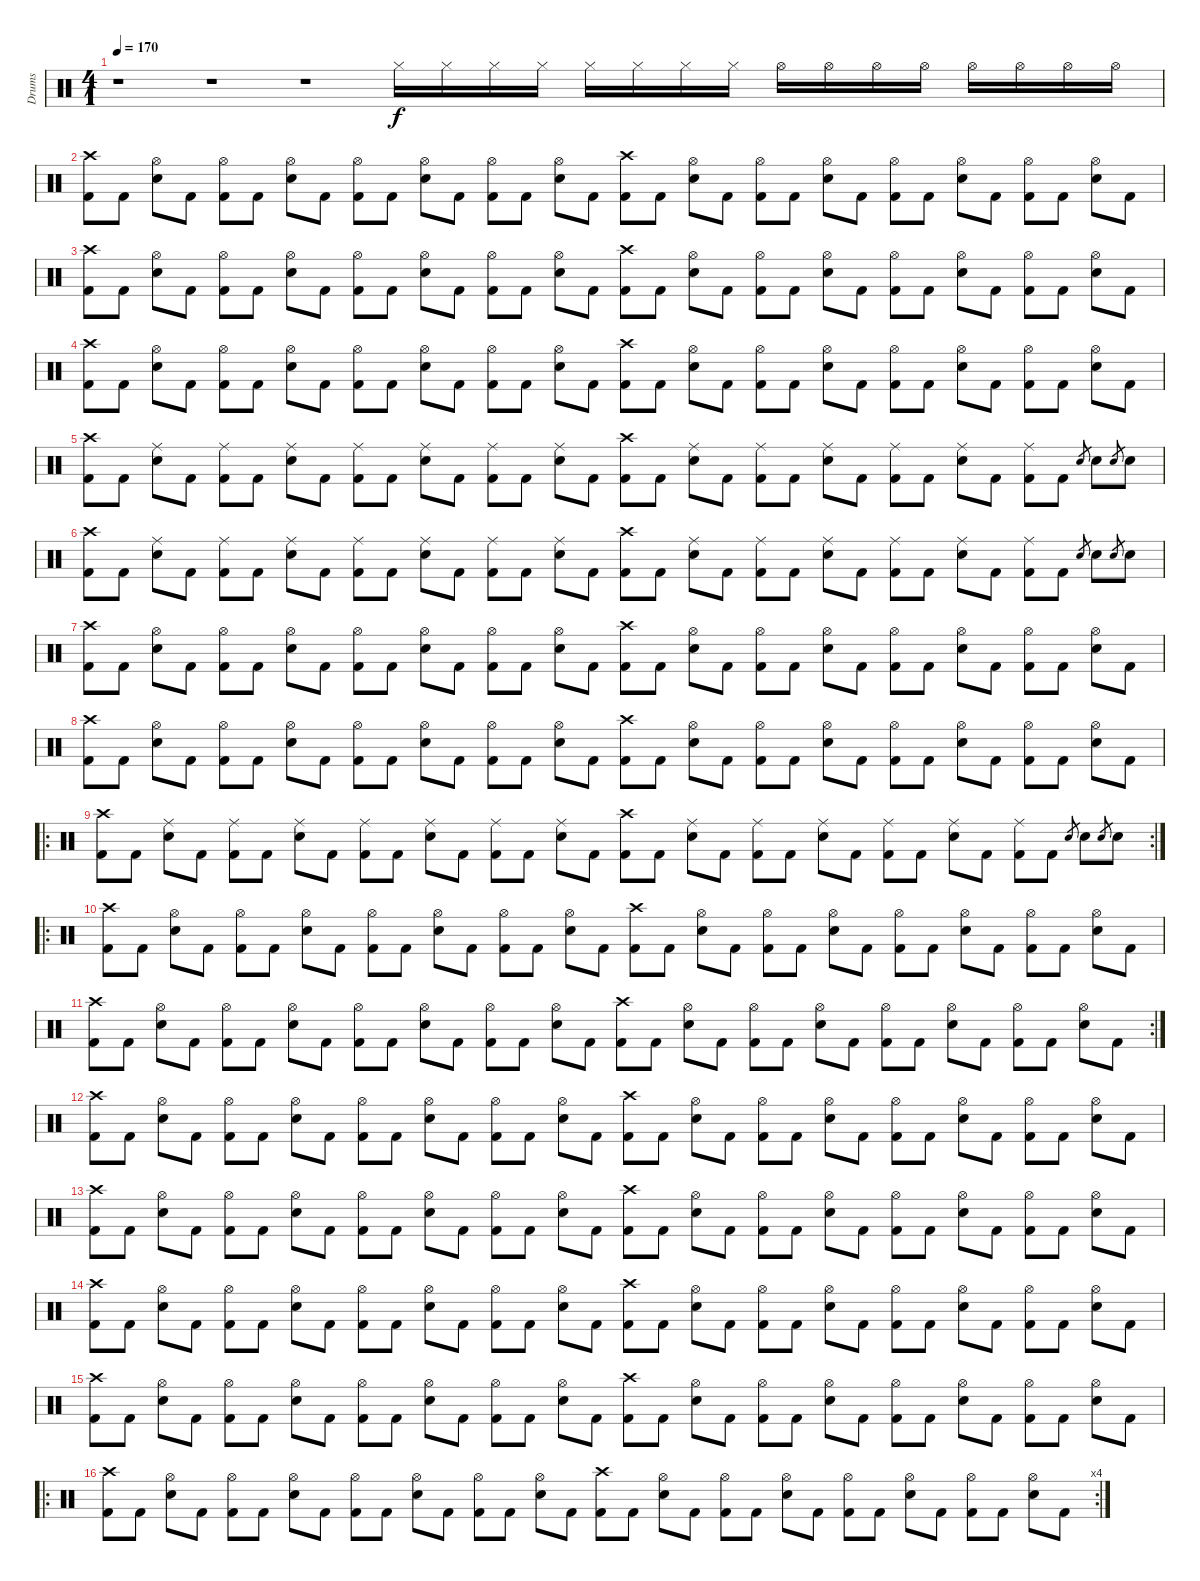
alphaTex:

\track ("Drums" "Drums") {instrument percussion}
\staff {score}
\articulation defaults
\ts (4 1)
\tempo 170
\clef neutral
\ks c
r.1{dy f} r.1 r.1 "Hi-Hat (closed)".16 "Hi-Hat (closed)".16 "Hi-Hat (closed)".16 "Hi-Hat (closed)".16 "Hi-Hat (closed)".16 "Hi-Hat (closed)".16 "Hi-Hat (closed)".16 "Hi-Hat (closed)".16 "Hi-Hat (open)".16 "Hi-Hat (open)".16 "Hi-Hat (open)".16 "Hi-Hat (open)".16 "Hi-Hat (open)".16 "Hi-Hat (open)".16 "Hi-Hat (open)".16 "Hi-Hat (open)".16 |
("Crash high (hit)" "Kick (hit) 2").8 "Kick (hit) 2".8 ("Hi-Hat (open)" "Electric Snare (hit)").8 "Kick (hit) 2".8 ("Hi-Hat (open)" "Kick (hit) 2").8 "Kick (hit) 2".8 ("Hi-Hat (open)" "Electric Snare (hit)").8 "Kick (hit) 2".8 ("Hi-Hat (open)" "Kick (hit) 2").8 "Kick (hit) 2".8 ("Hi-Hat (open)" "Electric Snare (hit)").8 "Kick (hit) 2".8 ("Hi-Hat (open)" "Kick (hit) 2").8 "Kick (hit) 2".8 ("Hi-Hat (open)" "Electric Snare (hit)").8 "Kick (hit) 2".8 ("Crash high (hit)" "Kick (hit) 2").8 "Kick (hit) 2".8 ("Hi-Hat (open)" "Electric Snare (hit)").8 "Kick (hit) 2".8 ("Hi-Hat (open)" "Kick (hit) 2").8 "Kick (hit) 2".8 ("Hi-Hat (open)" "Electric Snare (hit)").8 "Kick (hit) 2".8 ("Hi-Hat (open)" "Kick (hit) 2").8 "Kick (hit) 2".8 ("Hi-Hat (open)" "Electric Snare (hit)").8 "Kick (hit) 2".8 ("Hi-Hat (open)" "Kick (hit) 2").8 "Kick (hit) 2".8 ("Hi-Hat (open)" "Electric Snare (hit)").8 "Kick (hit) 2".8 |
("Crash high (hit)" "Kick (hit) 2").8 "Kick (hit) 2".8 ("Hi-Hat (open)" "Electric Snare (hit)").8 "Kick (hit) 2".8 ("Hi-Hat (open)" "Kick (hit) 2").8 "Kick (hit) 2".8 ("Hi-Hat (open)" "Electric Snare (hit)").8 "Kick (hit) 2".8 ("Hi-Hat (open)" "Kick (hit) 2").8 "Kick (hit) 2".8 ("Hi-Hat (open)" "Electric Snare (hit)").8 "Kick (hit) 2".8 ("Hi-Hat (open)" "Kick (hit) 2").8 "Kick (hit) 2".8 ("Hi-Hat (open)" "Electric Snare (hit)").8 "Kick (hit) 2".8 ("Crash high (hit)" "Kick (hit) 2").8 "Kick (hit) 2".8 ("Hi-Hat (open)" "Electric Snare (hit)").8 "Kick (hit) 2".8 ("Hi-Hat (open)" "Kick (hit) 2").8 "Kick (hit) 2".8 ("Hi-Hat (open)" "Electric Snare (hit)").8 "Kick (hit) 2".8 ("Hi-Hat (open)" "Kick (hit) 2").8 "Kick (hit) 2".8 ("Hi-Hat (open)" "Electric Snare (hit)").8 "Kick (hit) 2".8 ("Hi-Hat (open)" "Kick (hit) 2").8 "Kick (hit) 2".8 ("Hi-Hat (open)" "Electric Snare (hit)").8 "Kick (hit) 2".8 |
("Crash high (hit)" "Kick (hit) 2").8 "Kick (hit) 2".8 ("Hi-Hat (open)" "Electric Snare (hit)").8 "Kick (hit) 2".8 ("Hi-Hat (open)" "Kick (hit) 2").8 "Kick (hit) 2".8 ("Hi-Hat (open)" "Electric Snare (hit)").8 "Kick (hit) 2".8 ("Hi-Hat (open)" "Kick (hit) 2").8 "Kick (hit) 2".8 ("Hi-Hat (open)" "Electric Snare (hit)").8 "Kick (hit) 2".8 ("Hi-Hat (open)" "Kick (hit) 2").8 "Kick (hit) 2".8 ("Hi-Hat (open)" "Electric Snare (hit)").8 "Kick (hit) 2".8 ("Crash high (hit)" "Kick (hit) 2").8 "Kick (hit) 2".8 ("Hi-Hat (open)" "Electric Snare (hit)").8 "Kick (hit) 2".8 ("Hi-Hat (open)" "Kick (hit) 2").8 "Kick (hit) 2".8 ("Hi-Hat (open)" "Electric Snare (hit)").8 "Kick (hit) 2".8 ("Hi-Hat (open)" "Kick (hit) 2").8 "Kick (hit) 2".8 ("Hi-Hat (open)" "Electric Snare (hit)").8 "Kick (hit) 2".8 ("Hi-Hat (open)" "Kick (hit) 2").8 "Kick (hit) 2".8 ("Hi-Hat (open)" "Electric Snare (hit)").8 "Kick (hit) 2".8 |
("Crash high (hit)" "Kick (hit) 2").8 "Kick (hit) 2".8 ("Ride (middle)" "Electric Snare (hit)").8 "Kick (hit) 2".8 ("Ride (middle)" "Kick (hit) 2").8 "Kick (hit) 2".8 ("Ride (middle)" "Electric Snare (hit)").8 "Kick (hit) 2".8 ("Ride (middle)" "Kick (hit) 2").8 "Kick (hit) 2".8 ("Ride (middle)" "Electric Snare (hit)").8 "Kick (hit) 2".8 ("Ride (middle)" "Kick (hit) 2").8 "Kick (hit) 2".8 ("Ride (middle)" "Electric Snare (hit)").8 "Kick (hit) 2".8 ("Crash high (hit)" "Kick (hit) 2").8 "Kick (hit) 2".8 ("Ride (middle)" "Electric Snare (hit)").8 "Kick (hit) 2".8 ("Ride (middle)" "Kick (hit) 2").8 "Kick (hit) 2".8 ("Ride (middle)" "Electric Snare (hit)").8 "Kick (hit) 2".8 ("Ride (middle)" "Kick (hit) 2").8 "Kick (hit) 2".8 ("Ride (middle)" "Electric Snare (hit)").8 "Kick (hit) 2".8 ("Ride (middle)" "Kick (hit) 2").8 "Kick (hit) 2".8 "Electric Snare (hit)".8{gr} "Electric Snare (hit)".8 "Electric Snare (hit)".8{gr} "Electric Snare (hit)".8 |
("Crash high (hit)" "Kick (hit) 2").8 "Kick (hit) 2".8 ("Ride (middle)" "Electric Snare (hit)").8 "Kick (hit) 2".8 ("Ride (middle)" "Kick (hit) 2").8 "Kick (hit) 2".8 ("Ride (middle)" "Electric Snare (hit)").8 "Kick (hit) 2".8 ("Ride (middle)" "Kick (hit) 2").8 "Kick (hit) 2".8 ("Ride (middle)" "Electric Snare (hit)").8 "Kick (hit) 2".8 ("Ride (middle)" "Kick (hit) 2").8 "Kick (hit) 2".8 ("Ride (middle)" "Electric Snare (hit)").8 "Kick (hit) 2".8 ("Crash high (hit)" "Kick (hit) 2").8 "Kick (hit) 2".8 ("Ride (middle)" "Electric Snare (hit)").8 "Kick (hit) 2".8 ("Ride (middle)" "Kick (hit) 2").8 "Kick (hit) 2".8 ("Ride (middle)" "Electric Snare (hit)").8 "Kick (hit) 2".8 ("Ride (middle)" "Kick (hit) 2").8 "Kick (hit) 2".8 ("Ride (middle)" "Electric Snare (hit)").8 "Kick (hit) 2".8 ("Ride (middle)" "Kick (hit) 2").8 "Kick (hit) 2".8 "Electric Snare (hit)".8{gr} "Electric Snare (hit)".8 "Electric Snare (hit)".8{gr} "Electric Snare (hit)".8 |
("Crash high (hit)" "Kick (hit) 2").8 "Kick (hit) 2".8 ("Hi-Hat (open)" "Electric Snare (hit)").8 "Kick (hit) 2".8 ("Hi-Hat (open)" "Kick (hit) 2").8 "Kick (hit) 2".8 ("Hi-Hat (open)" "Electric Snare (hit)").8 "Kick (hit) 2".8 ("Hi-Hat (open)" "Kick (hit) 2").8 "Kick (hit) 2".8 ("Hi-Hat (open)" "Electric Snare (hit)").8 "Kick (hit) 2".8 ("Hi-Hat (open)" "Kick (hit) 2").8 "Kick (hit) 2".8 ("Hi-Hat (open)" "Electric Snare (hit)").8 "Kick (hit) 2".8 ("Crash high (hit)" "Kick (hit) 2").8 "Kick (hit) 2".8 ("Hi-Hat (open)" "Electric Snare (hit)").8 "Kick (hit) 2".8 ("Hi-Hat (open)" "Kick (hit) 2").8 "Kick (hit) 2".8 ("Hi-Hat (open)" "Electric Snare (hit)").8 "Kick (hit) 2".8 ("Hi-Hat (open)" "Kick (hit) 2").8 "Kick (hit) 2".8 ("Hi-Hat (open)" "Electric Snare (hit)").8 "Kick (hit) 2".8 ("Hi-Hat (open)" "Kick (hit) 2").8 "Kick (hit) 2".8 ("Hi-Hat (open)" "Electric Snare (hit)").8 "Kick (hit) 2".8 |
("Crash high (hit)" "Kick (hit) 2").8 "Kick (hit) 2".8 ("Hi-Hat (open)" "Electric Snare (hit)").8 "Kick (hit) 2".8 ("Hi-Hat (open)" "Kick (hit) 2").8 "Kick (hit) 2".8 ("Hi-Hat (open)" "Electric Snare (hit)").8 "Kick (hit) 2".8 ("Hi-Hat (open)" "Kick (hit) 2").8 "Kick (hit) 2".8 ("Hi-Hat (open)" "Electric Snare (hit)").8 "Kick (hit) 2".8 ("Hi-Hat (open)" "Kick (hit) 2").8 "Kick (hit) 2".8 ("Hi-Hat (open)" "Electric Snare (hit)").8 "Kick (hit) 2".8 ("Crash high (hit)" "Kick (hit) 2").8 "Kick (hit) 2".8 ("Hi-Hat (open)" "Electric Snare (hit)").8 "Kick (hit) 2".8 ("Hi-Hat (open)" "Kick (hit) 2").8 "Kick (hit) 2".8 ("Hi-Hat (open)" "Electric Snare (hit)").8 "Kick (hit) 2".8 ("Hi-Hat (open)" "Kick (hit) 2").8 "Kick (hit) 2".8 ("Hi-Hat (open)" "Electric Snare (hit)").8 "Kick (hit) 2".8 ("Hi-Hat (open)" "Kick (hit) 2").8 "Kick (hit) 2".8 ("Hi-Hat (open)" "Electric Snare (hit)").8 "Kick (hit) 2".8 |
\ro
\rc 2
("Crash high (hit)" "Kick (hit) 2").8 "Kick (hit) 2".8 ("Ride (middle)" "Electric Snare (hit)").8 "Kick (hit) 2".8 ("Ride (middle)" "Kick (hit) 2").8 "Kick (hit) 2".8 ("Ride (middle)" "Electric Snare (hit)").8 "Kick (hit) 2".8 ("Ride (middle)" "Kick (hit) 2").8 "Kick (hit) 2".8 ("Ride (middle)" "Electric Snare (hit)").8 "Kick (hit) 2".8 ("Ride (middle)" "Kick (hit) 2").8 "Kick (hit) 2".8 ("Ride (middle)" "Electric Snare (hit)").8 "Kick (hit) 2".8 ("Crash high (hit)" "Kick (hit) 2").8 "Kick (hit) 2".8 ("Ride (middle)" "Electric Snare (hit)").8 "Kick (hit) 2".8 ("Ride (middle)" "Kick (hit) 2").8 "Kick (hit) 2".8 ("Ride (middle)" "Electric Snare (hit)").8 "Kick (hit) 2".8 ("Ride (middle)" "Kick (hit) 2").8 "Kick (hit) 2".8 ("Ride (middle)" "Electric Snare (hit)").8 "Kick (hit) 2".8 ("Ride (middle)" "Kick (hit) 2").8 "Kick (hit) 2".8 "Electric Snare (hit)".8{gr} "Electric Snare (hit)".8 "Electric Snare (hit)".8{gr} "Electric Snare (hit)".8 |
\ro
("Crash high (hit)" "Kick (hit) 2").8 "Kick (hit) 2".8 ("Hi-Hat (open)" "Electric Snare (hit)").8 "Kick (hit) 2".8 ("Hi-Hat (open)" "Kick (hit) 2").8 "Kick (hit) 2".8 ("Hi-Hat (open)" "Electric Snare (hit)").8 "Kick (hit) 2".8 ("Hi-Hat (open)" "Kick (hit) 2").8 "Kick (hit) 2".8 ("Hi-Hat (open)" "Electric Snare (hit)").8 "Kick (hit) 2".8 ("Hi-Hat (open)" "Kick (hit) 2").8 "Kick (hit) 2".8 ("Hi-Hat (open)" "Electric Snare (hit)").8 "Kick (hit) 2".8 ("Crash high (hit)" "Kick (hit) 2").8 "Kick (hit) 2".8 ("Hi-Hat (open)" "Electric Snare (hit)").8 "Kick (hit) 2".8 ("Hi-Hat (open)" "Kick (hit) 2").8 "Kick (hit) 2".8 ("Hi-Hat (open)" "Electric Snare (hit)").8 "Kick (hit) 2".8 ("Hi-Hat (open)" "Kick (hit) 2").8 "Kick (hit) 2".8 ("Hi-Hat (open)" "Electric Snare (hit)").8 "Kick (hit) 2".8 ("Hi-Hat (open)" "Kick (hit) 2").8 "Kick (hit) 2".8 ("Hi-Hat (open)" "Electric Snare (hit)").8 "Kick (hit) 2".8 |
\rc 2
("Crash high (hit)" "Kick (hit) 2").8 "Kick (hit) 2".8 ("Hi-Hat (open)" "Electric Snare (hit)").8 "Kick (hit) 2".8 ("Hi-Hat (open)" "Kick (hit) 2").8 "Kick (hit) 2".8 ("Hi-Hat (open)" "Electric Snare (hit)").8 "Kick (hit) 2".8 ("Hi-Hat (open)" "Kick (hit) 2").8 "Kick (hit) 2".8 ("Hi-Hat (open)" "Electric Snare (hit)").8 "Kick (hit) 2".8 ("Hi-Hat (open)" "Kick (hit) 2").8 "Kick (hit) 2".8 ("Hi-Hat (open)" "Electric Snare (hit)").8 "Kick (hit) 2".8 ("Crash high (hit)" "Kick (hit) 2").8 "Kick (hit) 2".8 ("Hi-Hat (open)" "Electric Snare (hit)").8 "Kick (hit) 2".8 ("Hi-Hat (open)" "Kick (hit) 2").8 "Kick (hit) 2".8 ("Hi-Hat (open)" "Electric Snare (hit)").8 "Kick (hit) 2".8 ("Hi-Hat (open)" "Kick (hit) 2").8 "Kick (hit) 2".8 ("Hi-Hat (open)" "Electric Snare (hit)").8 "Kick (hit) 2".8 ("Hi-Hat (open)" "Kick (hit) 2").8 "Kick (hit) 2".8 ("Hi-Hat (open)" "Electric Snare (hit)").8 "Kick (hit) 2".8 |
("Crash high (hit)" "Kick (hit) 2").8 "Kick (hit) 2".8 ("Hi-Hat (open)" "Electric Snare (hit)").8 "Kick (hit) 2".8 ("Hi-Hat (open)" "Kick (hit) 2").8 "Kick (hit) 2".8 ("Hi-Hat (open)" "Electric Snare (hit)").8 "Kick (hit) 2".8 ("Hi-Hat (open)" "Kick (hit) 2").8 "Kick (hit) 2".8 ("Hi-Hat (open)" "Electric Snare (hit)").8 "Kick (hit) 2".8 ("Hi-Hat (open)" "Kick (hit) 2").8 "Kick (hit) 2".8 ("Hi-Hat (open)" "Electric Snare (hit)").8 "Kick (hit) 2".8 ("Crash high (hit)" "Kick (hit) 2").8 "Kick (hit) 2".8 ("Hi-Hat (open)" "Electric Snare (hit)").8 "Kick (hit) 2".8 ("Hi-Hat (open)" "Kick (hit) 2").8 "Kick (hit) 2".8 ("Hi-Hat (open)" "Electric Snare (hit)").8 "Kick (hit) 2".8 ("Hi-Hat (open)" "Kick (hit) 2").8 "Kick (hit) 2".8 ("Hi-Hat (open)" "Electric Snare (hit)").8 "Kick (hit) 2".8 ("Hi-Hat (open)" "Kick (hit) 2").8 "Kick (hit) 2".8 ("Hi-Hat (open)" "Electric Snare (hit)").8 "Kick (hit) 2".8 |
("Crash high (hit)" "Kick (hit) 2").8 "Kick (hit) 2".8 ("Hi-Hat (open)" "Electric Snare (hit)").8 "Kick (hit) 2".8 ("Hi-Hat (open)" "Kick (hit) 2").8 "Kick (hit) 2".8 ("Hi-Hat (open)" "Electric Snare (hit)").8 "Kick (hit) 2".8 ("Hi-Hat (open)" "Kick (hit) 2").8 "Kick (hit) 2".8 ("Hi-Hat (open)" "Electric Snare (hit)").8 "Kick (hit) 2".8 ("Hi-Hat (open)" "Kick (hit) 2").8 "Kick (hit) 2".8 ("Hi-Hat (open)" "Electric Snare (hit)").8 "Kick (hit) 2".8 ("Crash high (hit)" "Kick (hit) 2").8 "Kick (hit) 2".8 ("Hi-Hat (open)" "Electric Snare (hit)").8 "Kick (hit) 2".8 ("Hi-Hat (open)" "Kick (hit) 2").8 "Kick (hit) 2".8 ("Hi-Hat (open)" "Electric Snare (hit)").8 "Kick (hit) 2".8 ("Hi-Hat (open)" "Kick (hit) 2").8 "Kick (hit) 2".8 ("Hi-Hat (open)" "Electric Snare (hit)").8 "Kick (hit) 2".8 ("Hi-Hat (open)" "Kick (hit) 2").8 "Kick (hit) 2".8 ("Hi-Hat (open)" "Electric Snare (hit)").8 "Kick (hit) 2".8 |
("Crash high (hit)" "Kick (hit) 2").8 "Kick (hit) 2".8 ("Hi-Hat (open)" "Electric Snare (hit)").8 "Kick (hit) 2".8 ("Hi-Hat (open)" "Kick (hit) 2").8 "Kick (hit) 2".8 ("Hi-Hat (open)" "Electric Snare (hit)").8 "Kick (hit) 2".8 ("Hi-Hat (open)" "Kick (hit) 2").8 "Kick (hit) 2".8 ("Hi-Hat (open)" "Electric Snare (hit)").8 "Kick (hit) 2".8 ("Hi-Hat (open)" "Kick (hit) 2").8 "Kick (hit) 2".8 ("Hi-Hat (open)" "Electric Snare (hit)").8 "Kick (hit) 2".8 ("Crash high (hit)" "Kick (hit) 2").8 "Kick (hit) 2".8 ("Hi-Hat (open)" "Electric Snare (hit)").8 "Kick (hit) 2".8 ("Hi-Hat (open)" "Kick (hit) 2").8 "Kick (hit) 2".8 ("Hi-Hat (open)" "Electric Snare (hit)").8 "Kick (hit) 2".8 ("Hi-Hat (open)" "Kick (hit) 2").8 "Kick (hit) 2".8 ("Hi-Hat (open)" "Electric Snare (hit)").8 "Kick (hit) 2".8 ("Hi-Hat (open)" "Kick (hit) 2").8 "Kick (hit) 2".8 ("Hi-Hat (open)" "Electric Snare (hit)").8 "Kick (hit) 2".8 |
("Crash high (hit)" "Kick (hit) 2").8 "Kick (hit) 2".8 ("Hi-Hat (open)" "Electric Snare (hit)").8 "Kick (hit) 2".8 ("Hi-Hat (open)" "Kick (hit) 2").8 "Kick (hit) 2".8 ("Hi-Hat (open)" "Electric Snare (hit)").8 "Kick (hit) 2".8 ("Hi-Hat (open)" "Kick (hit) 2").8 "Kick (hit) 2".8 ("Hi-Hat (open)" "Electric Snare (hit)").8 "Kick (hit) 2".8 ("Hi-Hat (open)" "Kick (hit) 2").8 "Kick (hit) 2".8 ("Hi-Hat (open)" "Electric Snare (hit)").8 "Kick (hit) 2".8 ("Crash high (hit)" "Kick (hit) 2").8 "Kick (hit) 2".8 ("Hi-Hat (open)" "Electric Snare (hit)").8 "Kick (hit) 2".8 ("Hi-Hat (open)" "Kick (hit) 2").8 "Kick (hit) 2".8 ("Hi-Hat (open)" "Electric Snare (hit)").8 "Kick (hit) 2".8 ("Hi-Hat (open)" "Kick (hit) 2").8 "Kick (hit) 2".8 ("Hi-Hat (open)" "Electric Snare (hit)").8 "Kick (hit) 2".8 ("Hi-Hat (open)" "Kick (hit) 2").8 "Kick (hit) 2".8 ("Hi-Hat (open)" "Electric Snare (hit)").8 "Kick (hit) 2".8 |
\ro
\rc 4
("Crash high (hit)" "Kick (hit) 2").8 "Kick (hit) 2".8 ("Hi-Hat (open)" "Electric Snare (hit)").8 "Kick (hit) 2".8 ("Hi-Hat (open)" "Kick (hit) 2").8 "Kick (hit) 2".8 ("Hi-Hat (open)" "Electric Snare (hit)").8 "Kick (hit) 2".8 ("Hi-Hat (open)" "Kick (hit) 2").8 "Kick (hit) 2".8 ("Hi-Hat (open)" "Electric Snare (hit)").8 "Kick (hit) 2".8 ("Hi-Hat (open)" "Kick (hit) 2").8 "Kick (hit) 2".8 ("Hi-Hat (open)" "Electric Snare (hit)").8 "Kick (hit) 2".8 ("Crash high (hit)" "Kick (hit) 2").8 "Kick (hit) 2".8 ("Hi-Hat (open)" "Electric Snare (hit)").8 "Kick (hit) 2".8 ("Hi-Hat (open)" "Kick (hit) 2").8 "Kick (hit) 2".8 ("Hi-Hat (open)" "Electric Snare (hit)").8 "Kick (hit) 2".8 ("Hi-Hat (open)" "Kick (hit) 2").8 "Kick (hit) 2".8 ("Hi-Hat (open)" "Electric Snare (hit)").8 "Kick (hit) 2".8 ("Hi-Hat (open)" "Kick (hit) 2").8 "Kick (hit) 2".8 ("Hi-Hat (open)" "Electric Snare (hit)").8 "Kick (hit) 2".8
